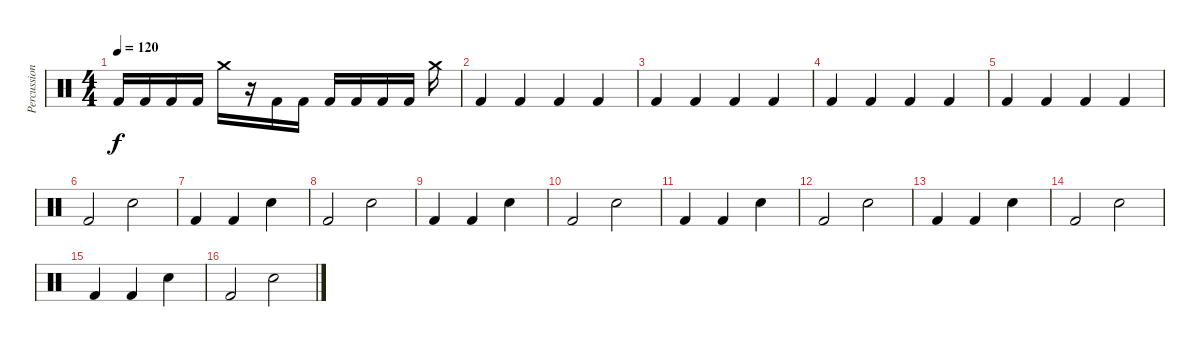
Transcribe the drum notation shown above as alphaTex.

\track ("Percussion" "Percussion") {solo instrument percussion}
\staff {score}
\articulation defaults
\ts (4 4)
\tempo 120
\clef neutral
\ks c "Kick (hit) 2".16{dy f} "Kick (hit) 2".16 "Kick (hit) 2".16 "Kick (hit) 2".16 "Crash medium (hit)".16
r.16 "Kick (hit) 2".16 "Kick (hit) 2".16 "Kick (hit) 2".16 "Kick (hit) 2".16 "Kick (hit) 2".16 "Kick (hit) 2".16 "Crash medium (hit)".16 |
"Kick (hit) 2".4 "Kick (hit) 2".4 "Kick (hit) 2".4 "Kick (hit) 2".4 |
"Kick (hit) 2".4 "Kick (hit) 2".4 "Kick (hit) 2".4 "Kick (hit) 2".4 |
"Kick (hit) 2".4 "Kick (hit) 2".4 "Kick (hit) 2".4 "Kick (hit) 2".4 |
"Kick (hit) 2".4 "Kick (hit) 2".4 "Kick (hit) 2".4 "Kick (hit) 2".4 |
"Kick (hit) 2".2 "Snare (hit) 2".2 |
"Kick (hit) 2".4 "Kick (hit) 2".4 "Snare (hit) 2".4 |
"Kick (hit) 2".2 "Snare (hit) 2".2 |
"Kick (hit) 2".4 "Kick (hit) 2".4 "Snare (hit) 2".4 |
"Kick (hit) 2".2 "Snare (hit) 2".2 |
"Kick (hit) 2".4 "Kick (hit) 2".4 "Snare (hit) 2".4 |
"Kick (hit) 2".2 "Snare (hit) 2".2 |
"Kick (hit) 2".4 "Kick (hit) 2".4 "Snare (hit) 2".4 |
"Kick (hit) 2".2 "Snare (hit) 2".2 |
"Kick (hit) 2".4 "Kick (hit) 2".4 "Snare (hit) 2".4 |
"Kick (hit) 2".2 "Snare (hit) 2".2
